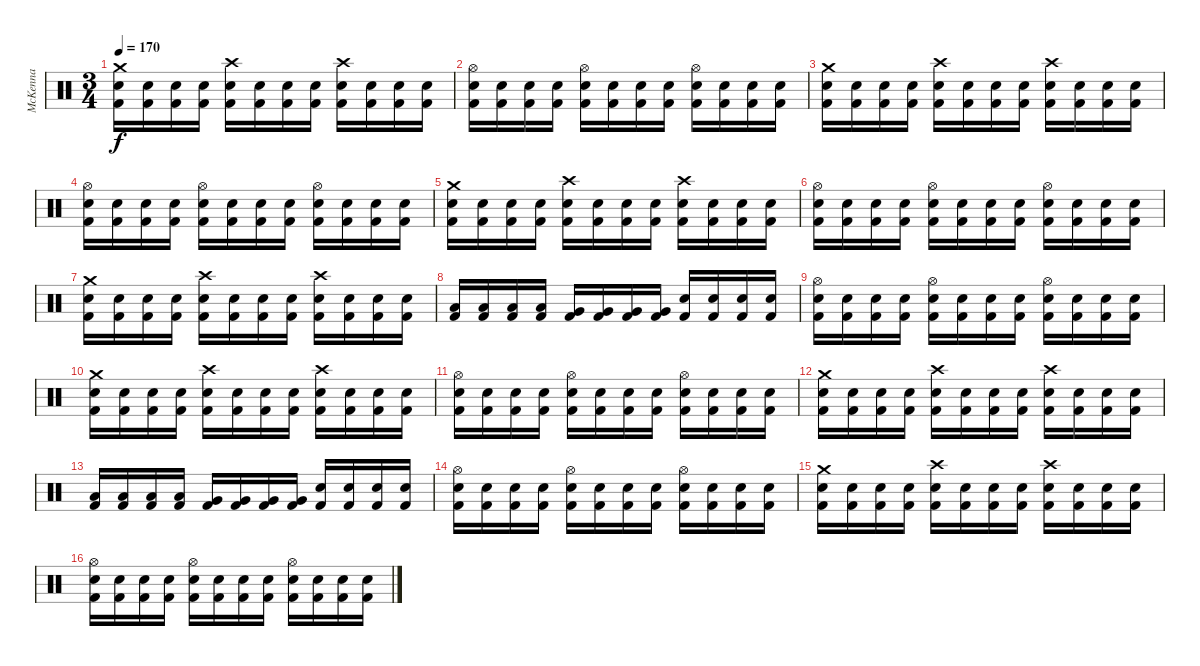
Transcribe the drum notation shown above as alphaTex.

\track ("McKenna" "McKenna") {instrument percussion}
\staff {score}
\articulation defaults
\ts (3 4)
\tempo 170
\clef neutral
\ks c
("Crash medium (hit)" "Electric Snare (hit)" "Kick (hit) 2").16{dy f} ("Electric Snare (hit)" "Kick (hit) 2").16 ("Electric Snare (hit)" "Kick (hit) 2").16 ("Electric Snare (hit)" "Kick (hit) 2").16 ("Crash high (hit)" "Electric Snare (hit)" "Kick (hit) 2").16 ("Electric Snare (hit)" "Kick (hit) 2").16 ("Electric Snare (hit)" "Kick (hit) 2").16 ("Electric Snare (hit)" "Kick (hit) 2").16 ("Crash high (hit)" "Electric Snare (hit)" "Kick (hit) 2").16 ("Electric Snare (hit)" "Kick (hit) 2").16 ("Electric Snare (hit)" "Kick (hit) 2").16 ("Electric Snare (hit)" "Kick (hit) 2").16 |
("Hi-Hat (open)" "Electric Snare (hit)" "Kick (hit) 2").16 ("Electric Snare (hit)" "Kick (hit) 2").16 ("Electric Snare (hit)" "Kick (hit) 2").16 ("Electric Snare (hit)" "Kick (hit) 2").16 ("Hi-Hat (open)" "Electric Snare (hit)" "Kick (hit) 2").16 ("Electric Snare (hit)" "Kick (hit) 2").16 ("Electric Snare (hit)" "Kick (hit) 2").16 ("Electric Snare (hit)" "Kick (hit) 2").16 ("Hi-Hat (open)" "Electric Snare (hit)" "Kick (hit) 2").16 ("Electric Snare (hit)" "Kick (hit) 2").16 ("Electric Snare (hit)" "Kick (hit) 2").16 ("Electric Snare (hit)" "Kick (hit) 2").16 |
("Crash medium (hit)" "Electric Snare (hit)" "Kick (hit) 2").16 ("Electric Snare (hit)" "Kick (hit) 2").16 ("Electric Snare (hit)" "Kick (hit) 2").16 ("Electric Snare (hit)" "Kick (hit) 2").16 ("Crash high (hit)" "Electric Snare (hit)" "Kick (hit) 2").16 ("Electric Snare (hit)" "Kick (hit) 2").16 ("Electric Snare (hit)" "Kick (hit) 2").16 ("Electric Snare (hit)" "Kick (hit) 2").16 ("Crash high (hit)" "Electric Snare (hit)" "Kick (hit) 2").16 ("Electric Snare (hit)" "Kick (hit) 2").16 ("Electric Snare (hit)" "Kick (hit) 2").16 ("Electric Snare (hit)" "Kick (hit) 2").16 |
("Hi-Hat (open)" "Electric Snare (hit)" "Kick (hit) 2").16 ("Electric Snare (hit)" "Kick (hit) 2").16 ("Electric Snare (hit)" "Kick (hit) 2").16 ("Electric Snare (hit)" "Kick (hit) 2").16 ("Hi-Hat (open)" "Electric Snare (hit)" "Kick (hit) 2").16 ("Electric Snare (hit)" "Kick (hit) 2").16 ("Electric Snare (hit)" "Kick (hit) 2").16 ("Electric Snare (hit)" "Kick (hit) 2").16 ("Hi-Hat (open)" "Electric Snare (hit)" "Kick (hit) 2").16 ("Electric Snare (hit)" "Kick (hit) 2").16 ("Electric Snare (hit)" "Kick (hit) 2").16 ("Electric Snare (hit)" "Kick (hit) 2").16 |
("Crash medium (hit)" "Electric Snare (hit)" "Kick (hit) 2").16 ("Electric Snare (hit)" "Kick (hit) 2").16 ("Electric Snare (hit)" "Kick (hit) 2").16 ("Electric Snare (hit)" "Kick (hit) 2").16 ("Crash high (hit)" "Electric Snare (hit)" "Kick (hit) 2").16 ("Electric Snare (hit)" "Kick (hit) 2").16 ("Electric Snare (hit)" "Kick (hit) 2").16 ("Electric Snare (hit)" "Kick (hit) 2").16 ("Crash high (hit)" "Electric Snare (hit)" "Kick (hit) 2").16 ("Electric Snare (hit)" "Kick (hit) 2").16 ("Electric Snare (hit)" "Kick (hit) 2").16 ("Electric Snare (hit)" "Kick (hit) 2").16 |
("Hi-Hat (open)" "Electric Snare (hit)" "Kick (hit) 2").16 ("Electric Snare (hit)" "Kick (hit) 2").16 ("Electric Snare (hit)" "Kick (hit) 2").16 ("Electric Snare (hit)" "Kick (hit) 2").16 ("Hi-Hat (open)" "Electric Snare (hit)" "Kick (hit) 2").16 ("Electric Snare (hit)" "Kick (hit) 2").16 ("Electric Snare (hit)" "Kick (hit) 2").16 ("Electric Snare (hit)" "Kick (hit) 2").16 ("Hi-Hat (open)" "Electric Snare (hit)" "Kick (hit) 2").16 ("Electric Snare (hit)" "Kick (hit) 2").16 ("Electric Snare (hit)" "Kick (hit) 2").16 ("Electric Snare (hit)" "Kick (hit) 2").16 |
("Crash medium (hit)" "Electric Snare (hit)" "Kick (hit) 2").16 ("Electric Snare (hit)" "Kick (hit) 2").16 ("Electric Snare (hit)" "Kick (hit) 2").16 ("Electric Snare (hit)" "Kick (hit) 2").16 ("Crash high (hit)" "Electric Snare (hit)" "Kick (hit) 2").16 ("Electric Snare (hit)" "Kick (hit) 2").16 ("Electric Snare (hit)" "Kick (hit) 2").16 ("Electric Snare (hit)" "Kick (hit) 2").16 ("Crash high (hit)" "Electric Snare (hit)" "Kick (hit) 2").16 ("Electric Snare (hit)" "Kick (hit) 2").16 ("Electric Snare (hit)" "Kick (hit) 2").16 ("Electric Snare (hit)" "Kick (hit) 2").16 |
("Low Floor Tom (hit)" "Kick (hit) 2").16 ("Low Floor Tom (hit)" "Kick (hit) 2").16 ("Low Floor Tom (hit)" "Kick (hit) 2").16 ("Low Floor Tom (hit)" "Kick (hit) 2").16 ("Very Low Tom (hit)" "Kick (hit) 2").16 ("Very Low Tom (hit)" "Kick (hit) 2").16 ("Very Low Tom (hit)" "Kick (hit) 2").16 ("Very Low Tom (hit)" "Kick (hit) 2").16 ("Snare (hit) 2" "Kick (hit) 2").16 ("Snare (hit) 2" "Kick (hit) 2").16 ("Snare (hit) 2" "Kick (hit) 2").16 ("Snare (hit) 2" "Kick (hit) 2").16 |
("Hi-Hat (open)" "Electric Snare (hit)" "Kick (hit) 2").16 ("Electric Snare (hit)" "Kick (hit) 2").16 ("Electric Snare (hit)" "Kick (hit) 2").16 ("Electric Snare (hit)" "Kick (hit) 2").16 ("Hi-Hat (open)" "Electric Snare (hit)" "Kick (hit) 2").16 ("Electric Snare (hit)" "Kick (hit) 2").16 ("Electric Snare (hit)" "Kick (hit) 2").16 ("Electric Snare (hit)" "Kick (hit) 2").16 ("Hi-Hat (open)" "Electric Snare (hit)" "Kick (hit) 2").16 ("Electric Snare (hit)" "Kick (hit) 2").16 ("Electric Snare (hit)" "Kick (hit) 2").16 ("Electric Snare (hit)" "Kick (hit) 2").16 |
("Crash medium (hit)" "Electric Snare (hit)" "Kick (hit) 2").16 ("Electric Snare (hit)" "Kick (hit) 2").16 ("Electric Snare (hit)" "Kick (hit) 2").16 ("Electric Snare (hit)" "Kick (hit) 2").16 ("Crash high (hit)" "Electric Snare (hit)" "Kick (hit) 2").16 ("Electric Snare (hit)" "Kick (hit) 2").16 ("Electric Snare (hit)" "Kick (hit) 2").16 ("Electric Snare (hit)" "Kick (hit) 2").16 ("Crash high (hit)" "Electric Snare (hit)" "Kick (hit) 2").16 ("Electric Snare (hit)" "Kick (hit) 2").16 ("Electric Snare (hit)" "Kick (hit) 2").16 ("Electric Snare (hit)" "Kick (hit) 2").16 |
("Hi-Hat (open)" "Electric Snare (hit)" "Kick (hit) 2").16 ("Electric Snare (hit)" "Kick (hit) 2").16 ("Electric Snare (hit)" "Kick (hit) 2").16 ("Electric Snare (hit)" "Kick (hit) 2").16 ("Hi-Hat (open)" "Electric Snare (hit)" "Kick (hit) 2").16 ("Electric Snare (hit)" "Kick (hit) 2").16 ("Electric Snare (hit)" "Kick (hit) 2").16 ("Electric Snare (hit)" "Kick (hit) 2").16 ("Hi-Hat (open)" "Electric Snare (hit)" "Kick (hit) 2").16 ("Electric Snare (hit)" "Kick (hit) 2").16 ("Electric Snare (hit)" "Kick (hit) 2").16 ("Electric Snare (hit)" "Kick (hit) 2").16 |
("Crash medium (hit)" "Electric Snare (hit)" "Kick (hit) 2").16 ("Electric Snare (hit)" "Kick (hit) 2").16 ("Electric Snare (hit)" "Kick (hit) 2").16 ("Electric Snare (hit)" "Kick (hit) 2").16 ("Crash high (hit)" "Electric Snare (hit)" "Kick (hit) 2").16 ("Electric Snare (hit)" "Kick (hit) 2").16 ("Electric Snare (hit)" "Kick (hit) 2").16 ("Electric Snare (hit)" "Kick (hit) 2").16 ("Crash high (hit)" "Electric Snare (hit)" "Kick (hit) 2").16 ("Electric Snare (hit)" "Kick (hit) 2").16 ("Electric Snare (hit)" "Kick (hit) 2").16 ("Electric Snare (hit)" "Kick (hit) 2").16 |
("Low Floor Tom (hit)" "Kick (hit) 2").16 ("Low Floor Tom (hit)" "Kick (hit) 2").16 ("Low Floor Tom (hit)" "Kick (hit) 2").16 ("Low Floor Tom (hit)" "Kick (hit) 2").16 ("Very Low Tom (hit)" "Kick (hit) 2").16 ("Very Low Tom (hit)" "Kick (hit) 2").16 ("Very Low Tom (hit)" "Kick (hit) 2").16 ("Very Low Tom (hit)" "Kick (hit) 2").16 ("Snare (hit) 2" "Kick (hit) 2").16 ("Snare (hit) 2" "Kick (hit) 2").16 ("Snare (hit) 2" "Kick (hit) 2").16 ("Snare (hit) 2" "Kick (hit) 2").16 |
("Hi-Hat (open)" "Electric Snare (hit)" "Kick (hit) 2").16 ("Electric Snare (hit)" "Kick (hit) 2").16 ("Electric Snare (hit)" "Kick (hit) 2").16 ("Electric Snare (hit)" "Kick (hit) 2").16 ("Hi-Hat (open)" "Electric Snare (hit)" "Kick (hit) 2").16 ("Electric Snare (hit)" "Kick (hit) 2").16 ("Electric Snare (hit)" "Kick (hit) 2").16 ("Electric Snare (hit)" "Kick (hit) 2").16 ("Hi-Hat (open)" "Electric Snare (hit)" "Kick (hit) 2").16 ("Electric Snare (hit)" "Kick (hit) 2").16 ("Electric Snare (hit)" "Kick (hit) 2").16 ("Electric Snare (hit)" "Kick (hit) 2").16 |
("Crash medium (hit)" "Electric Snare (hit)" "Kick (hit) 2").16 ("Electric Snare (hit)" "Kick (hit) 2").16 ("Electric Snare (hit)" "Kick (hit) 2").16 ("Electric Snare (hit)" "Kick (hit) 2").16 ("Crash high (hit)" "Electric Snare (hit)" "Kick (hit) 2").16 ("Electric Snare (hit)" "Kick (hit) 2").16 ("Electric Snare (hit)" "Kick (hit) 2").16 ("Electric Snare (hit)" "Kick (hit) 2").16 ("Crash high (hit)" "Electric Snare (hit)" "Kick (hit) 2").16 ("Electric Snare (hit)" "Kick (hit) 2").16 ("Electric Snare (hit)" "Kick (hit) 2").16 ("Electric Snare (hit)" "Kick (hit) 2").16 |
("Hi-Hat (open)" "Electric Snare (hit)" "Kick (hit) 2").16 ("Electric Snare (hit)" "Kick (hit) 2").16 ("Electric Snare (hit)" "Kick (hit) 2").16 ("Electric Snare (hit)" "Kick (hit) 2").16 ("Hi-Hat (open)" "Electric Snare (hit)" "Kick (hit) 2").16 ("Electric Snare (hit)" "Kick (hit) 2").16 ("Electric Snare (hit)" "Kick (hit) 2").16 ("Electric Snare (hit)" "Kick (hit) 2").16 ("Hi-Hat (open)" "Electric Snare (hit)" "Kick (hit) 2").16 ("Electric Snare (hit)" "Kick (hit) 2").16 ("Electric Snare (hit)" "Kick (hit) 2").16 ("Electric Snare (hit)" "Kick (hit) 2").16
